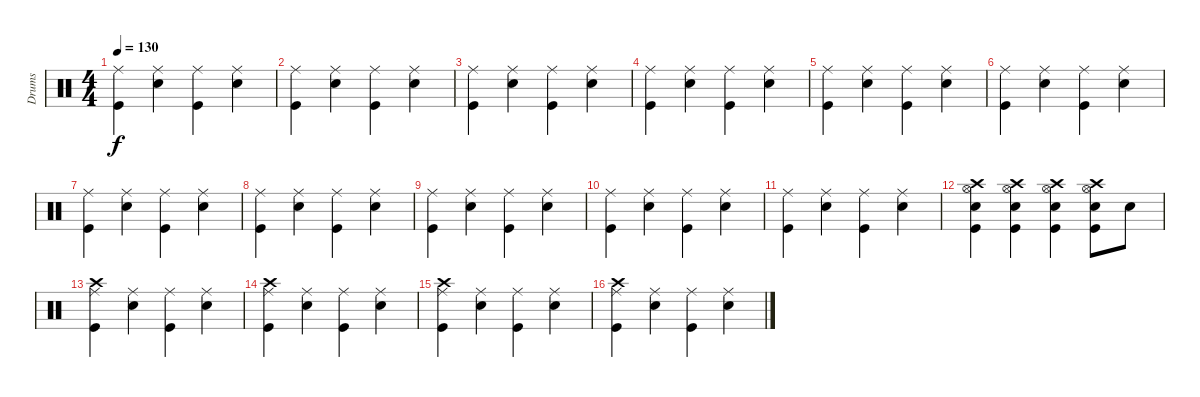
\track ("Drums" "Drums") {instrument percussion}
\staff {score}
\articulation defaults
\ts (4 4)
\tempo 130
\clef neutral
\ks c
("Kick (hit)" "Ride (middle)").4{dy f} ("Snare (hit) 2" "Ride (middle)").4 ("Kick (hit)" "Ride (middle)").4 ("Snare (hit) 2" "Ride (middle)").4 |
("Kick (hit)" "Ride (middle)").4 ("Snare (hit) 2" "Ride (middle)").4 ("Kick (hit)" "Ride (middle)").4 ("Snare (hit) 2" "Ride (middle)").4 |
("Kick (hit)" "Ride (middle)").4 ("Snare (hit) 2" "Ride (middle)").4 ("Kick (hit)" "Ride (middle)").4 ("Snare (hit) 2" "Ride (middle)").4 |
("Kick (hit)" "Ride (middle)").4 ("Snare (hit) 2" "Ride (middle)").4 ("Kick (hit)" "Ride (middle)").4 ("Snare (hit) 2" "Ride (middle)").4 |
("Kick (hit)" "Ride (middle)").4 ("Snare (hit) 2" "Ride (middle)").4 ("Kick (hit)" "Ride (middle)").4 ("Snare (hit) 2" "Ride (middle)").4 |
("Kick (hit)" "Ride (middle)").4 ("Snare (hit) 2" "Ride (middle)").4 ("Kick (hit)" "Ride (middle)").4 ("Snare (hit) 2" "Ride (middle)").4 |
("Kick (hit)" "Ride (middle)").4 ("Snare (hit) 2" "Ride (middle)").4 ("Kick (hit)" "Ride (middle)").4 ("Snare (hit) 2" "Ride (middle)").4 |
("Kick (hit)" "Ride (middle)").4 ("Snare (hit) 2" "Ride (middle)").4 ("Kick (hit)" "Ride (middle)").4 ("Snare (hit) 2" "Ride (middle)").4 |
("Kick (hit)" "Ride (middle)").4 ("Snare (hit) 2" "Ride (middle)").4 ("Kick (hit)" "Ride (middle)").4 ("Snare (hit) 2" "Ride (middle)").4 |
("Kick (hit)" "Ride (middle)").4 ("Snare (hit) 2" "Ride (middle)").4 ("Kick (hit)" "Ride (middle)").4 ("Snare (hit) 2" "Ride (middle)").4 |
("Kick (hit)" "Ride (middle)").4 ("Snare (hit) 2" "Ride (middle)").4 ("Kick (hit)" "Ride (middle)").4 ("Snare (hit) 2" "Ride (middle)").4 |
("Kick (hit)" "Snare (hit) 2" "Crash high (hit)" "Hi-Hat (open)").4 ("Kick (hit)" "Snare (hit) 2" "Crash high (hit)" "Hi-Hat (open)").4 ("Kick (hit)" "Snare (hit) 2" "Crash high (hit)" "Hi-Hat (open)").4 ("Kick (hit)" "Snare (hit) 2" "Crash high (hit)" "Hi-Hat (open)").8 "Snare (hit) 2".8 |
("Kick (hit)" "Crash high (hit)" "Ride (middle)").4 ("Snare (hit) 2" "Ride (middle)").4 ("Kick (hit)" "Ride (middle)").4 ("Snare (hit) 2" "Ride (middle)").4 |
("Kick (hit)" "Crash high (hit)" "Ride (middle)").4 ("Snare (hit) 2" "Ride (middle)").4 ("Kick (hit)" "Ride (middle)").4 ("Snare (hit) 2" "Ride (middle)").4 |
("Kick (hit)" "Crash high (hit)" "Ride (middle)").4 ("Snare (hit) 2" "Ride (middle)").4 ("Kick (hit)" "Ride (middle)").4 ("Snare (hit) 2" "Ride (middle)").4 |
("Kick (hit)" "Crash high (hit)" "Ride (middle)").4 ("Snare (hit) 2" "Ride (middle)").4 ("Kick (hit)" "Ride (middle)").4 ("Snare (hit) 2" "Ride (middle)").4
